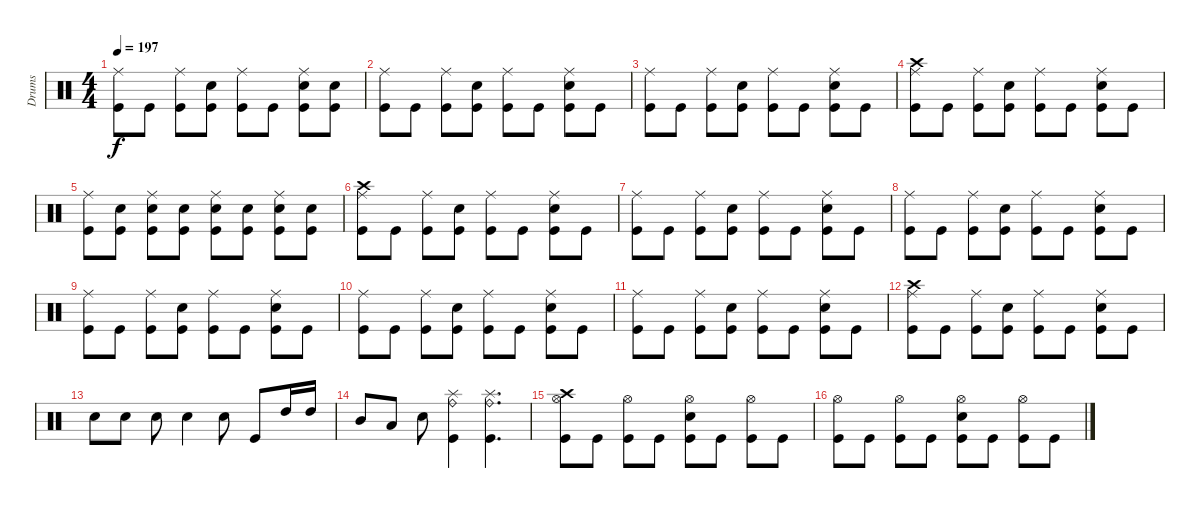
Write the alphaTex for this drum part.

\track ("Drums" "Drums") {instrument percussion}
\staff {score}
\articulation defaults
\ts (4 4)
\tempo 197
\clef neutral
\ks c
("Ride (middle)" "Kick (hit)").8{dy f} "Kick (hit)".8 ("Ride (middle)" "Kick (hit)").8 ("Electric Snare (hit)" "Kick (hit)").8 ("Ride (middle)" "Kick (hit)").8 "Kick (hit)".8 ("Ride (middle)" "Electric Snare (hit)" "Kick (hit)").8 ("Electric Snare (hit)" "Kick (hit)").8 |
("Ride (middle)" "Kick (hit)").8 "Kick (hit)".8 ("Ride (middle)" "Kick (hit)").8 ("Electric Snare (hit)" "Kick (hit)").8 ("Ride (middle)" "Kick (hit)").8 "Kick (hit)".8 ("Ride (middle)" "Electric Snare (hit)" "Kick (hit)").8 "Kick (hit)".8 |
("Ride (middle)" "Kick (hit)").8 "Kick (hit)".8 ("Ride (middle)" "Kick (hit)").8 ("Electric Snare (hit)" "Kick (hit)").8 ("Ride (middle)" "Kick (hit)").8 "Kick (hit)".8 ("Ride (middle)" "Electric Snare (hit)" "Kick (hit)").8 "Kick (hit)".8 |
("Crash high (hit)" "Ride (middle)" "Kick (hit)").8 "Kick (hit)".8 ("Ride (middle)" "Kick (hit)").8 ("Electric Snare (hit)" "Kick (hit)").8 ("Ride (middle)" "Kick (hit)").8 "Kick (hit)".8 ("Ride (middle)" "Electric Snare (hit)" "Kick (hit)").8 "Kick (hit)".8 |
("Ride (middle)" "Kick (hit)").8 ("Electric Snare (hit)" "Kick (hit)").8 ("Ride (middle)" "Electric Snare (hit)" "Kick (hit)").8 ("Electric Snare (hit)" "Kick (hit)").8 ("Ride (middle)" "Electric Snare (hit)" "Kick (hit)").8 ("Electric Snare (hit)" "Kick (hit)").8 ("Ride (middle)" "Electric Snare (hit)" "Kick (hit)").8 ("Electric Snare (hit)" "Kick (hit)").8 |
("Crash high (hit)" "Ride (middle)" "Kick (hit)").8 "Kick (hit)".8 ("Ride (middle)" "Kick (hit)").8 ("Electric Snare (hit)" "Kick (hit)").8 ("Ride (middle)" "Kick (hit)").8 "Kick (hit)".8 ("Ride (middle)" "Electric Snare (hit)" "Kick (hit)").8 "Kick (hit)".8 |
("Ride (middle)" "Kick (hit)").8 "Kick (hit)".8 ("Ride (middle)" "Kick (hit)").8 ("Electric Snare (hit)" "Kick (hit)").8 ("Ride (middle)" "Kick (hit)").8 "Kick (hit)".8 ("Ride (middle)" "Electric Snare (hit)" "Kick (hit)").8 "Kick (hit)".8 |
("Ride (middle)" "Kick (hit)").8 "Kick (hit)".8 ("Ride (middle)" "Kick (hit)").8 ("Electric Snare (hit)" "Kick (hit)").8 ("Ride (middle)" "Kick (hit)").8 "Kick (hit)".8 ("Ride (middle)" "Electric Snare (hit)" "Kick (hit)").8 "Kick (hit)".8 |
("Ride (middle)" "Kick (hit)").8 "Kick (hit)".8 ("Ride (middle)" "Kick (hit)").8 ("Electric Snare (hit)" "Kick (hit)").8 ("Ride (middle)" "Kick (hit)").8 "Kick (hit)".8 ("Ride (middle)" "Electric Snare (hit)" "Kick (hit)").8 "Kick (hit)".8 |
("Ride (middle)" "Kick (hit)").8 "Kick (hit)".8 ("Ride (middle)" "Kick (hit)").8 ("Electric Snare (hit)" "Kick (hit)").8 ("Ride (middle)" "Kick (hit)").8 "Kick (hit)".8 ("Ride (middle)" "Electric Snare (hit)" "Kick (hit)").8 "Kick (hit)".8 |
("Ride (middle)" "Kick (hit)").8 "Kick (hit)".8 ("Ride (middle)" "Kick (hit)").8 ("Electric Snare (hit)" "Kick (hit)").8 ("Ride (middle)" "Kick (hit)").8 "Kick (hit)".8 ("Ride (middle)" "Electric Snare (hit)" "Kick (hit)").8 "Kick (hit)".8 |
("Crash high (hit)" "Ride (middle)" "Kick (hit)").8 "Kick (hit)".8 ("Ride (middle)" "Kick (hit)").8 ("Electric Snare (hit)" "Kick (hit)").8 ("Ride (middle)" "Kick (hit)").8 "Kick (hit)".8 ("Ride (middle)" "Electric Snare (hit)" "Kick (hit)").8 "Kick (hit)".8 |
"Electric Snare (hit)".8 "Electric Snare (hit)".8 "Electric Snare (hit)".8 "Electric Snare (hit)".4 "Electric Snare (hit)".8 "Kick (hit)".8 "High Tom (hit)".16 "High Tom (hit)".16 |
"Mid Tom (hit)".8 "Low Tom (hit)".8 "Electric Snare (hit)".8 ("Ride (bell)" "Splash (hit)" "Kick (hit)").4 ("Ride (bell)" "Splash (hit)" "Kick (hit)").4{d} |
("Crash high (hit)" "Hi-Hat (open)" "Kick (hit)").8 "Kick (hit)".8 ("Hi-Hat (open)" "Kick (hit)").8 "Kick (hit)".8 ("Hi-Hat (open)" "Electric Snare (hit)" "Kick (hit)").8 "Kick (hit)".8 ("Hi-Hat (open)" "Kick (hit)").8 "Kick (hit)".8 |
("Hi-Hat (open)" "Kick (hit)").8 "Kick (hit)".8 ("Hi-Hat (open)" "Kick (hit)").8 "Kick (hit)".8 ("Hi-Hat (open)" "Electric Snare (hit)" "Kick (hit)").8 "Kick (hit)".8 ("Hi-Hat (open)" "Kick (hit)").8 "Kick (hit)".8
